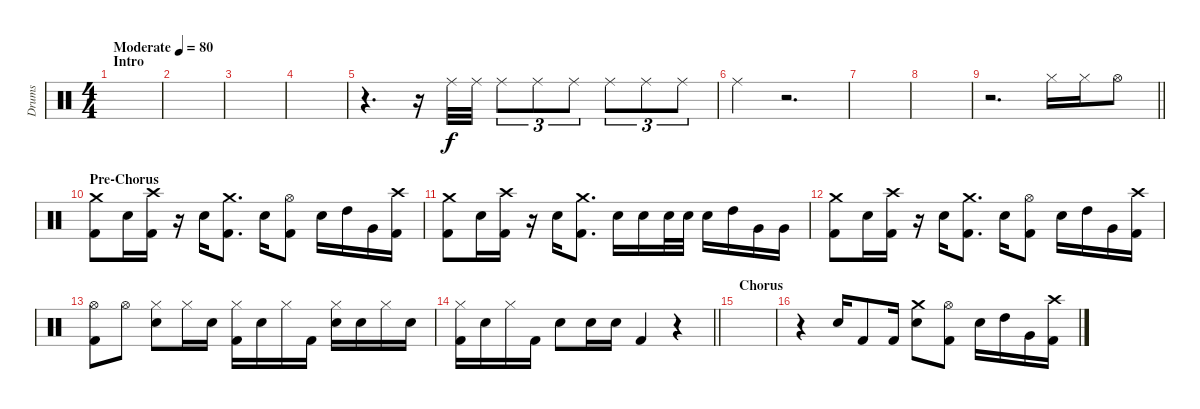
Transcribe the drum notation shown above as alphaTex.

\track ("Drums" "Drums") {instrument percussion}
\staff {score}
\articulation defaults
\ts (4 4)
\section ("" "Intro")
\tempo (80 "Moderate")
\clef neutral
\ks c
|
|
|
|
r.4{d} r.16 "Ride (middle)".32 "Ride (middle)".32 "Ride (middle)".8{tu (3 2)} "Ride (middle)".8{tu (3 2)} "Ride (middle)".8{tu (3 2)} "Ride (middle)".8{tu (3 2)} "Ride (middle)".8{tu (3 2)} "Ride (middle)".8{tu (3 2)} |
"Ride (middle)".4 r.2{d} |
|
|
\barLineRight lightlight
r.2{d} "Hi-Hat (closed)".16 "Hi-Hat (closed)".16 "Hi-Hat (open)".8 |
\section ("" "Pre-Chorus")
("Crash medium (hit)" "Kick (hit) 2").8 "Snare (hit) 2".16 ("Crash high (hit)" "Kick (hit) 2").16 r.16 "Snare (hit) 2".16 ("Crash medium (hit)" "Kick (hit) 2").8{d} "Snare (hit) 2".16 ("Hi-Hat (open)" "Kick (hit) 2").8 "Snare (hit) 2".16 "High Tom (hit)".16 "Very Low Tom (hit)".16 ("Crash high (hit)" "Kick (hit) 2").16 |
("Crash medium (hit)" "Kick (hit) 2").8 "Snare (hit) 2".16 ("Crash high (hit)" "Kick (hit) 2").16 r.16 "Snare (hit) 2".16 ("Crash medium (hit)" "Kick (hit) 2").8{d} "Snare (hit) 2".16 "Snare (hit) 2".16 "Snare (hit) 2".32 "Snare (hit) 2".32 "Snare (hit) 2".16 "High Tom (hit)".16 "Very Low Tom (hit)".16 "Very Low Tom (hit)".16 |
("Crash medium (hit)" "Kick (hit) 2").8 "Snare (hit) 2".16 ("Crash high (hit)" "Kick (hit) 2").16 r.16 "Snare (hit) 2".16 ("Crash medium (hit)" "Kick (hit) 2").8{d} "Snare (hit) 2".16 ("Hi-Hat (open)" "Kick (hit) 2").8 "Snare (hit) 2".16 "High Tom (hit)".16 "Very Low Tom (hit)".16 ("Crash high (hit)" "Kick (hit) 2").16 |
("Hi-Hat (open)" "Kick (hit) 2").8 "Hi-Hat (open)".8 ("Hi-Hat (closed)" "Snare (hit) 2").8 "Hi-Hat (closed)".16 "Snare (hit) 2".16 ("Hi-Hat (closed)" "Kick (hit) 2").16 "Snare (hit) 2".16 "Hi-Hat (closed)".16 "Kick (hit) 2".16 ("Hi-Hat (closed)" "Snare (hit) 2").16 "Snare (hit) 2".16 "Hi-Hat (closed)".16 "Snare (hit) 2".16 |
\barLineRight lightlight
("Hi-Hat (closed)" "Kick (hit) 2").16 "Snare (hit) 2".16 "Hi-Hat (closed)".16 "Kick (hit) 2".16 "Snare (hit) 2".8 "Snare (hit) 2".16 "Snare (hit) 2".16 "Kick (hit) 2".4 r.4 |
\section ("" "Chorus")
|
r.4 "Snare (hit) 2".16 "Kick (hit) 2".8 "Kick (hit) 2".16 ("Crash medium (hit)" "Snare (hit) 2").8 ("Hi-Hat (open)" "Kick (hit) 2").8 "Snare (hit) 2".16 "High Tom (hit)".16 "Very Low Tom (hit)".16 ("Crash high (hit)" "Kick (hit) 2").16
